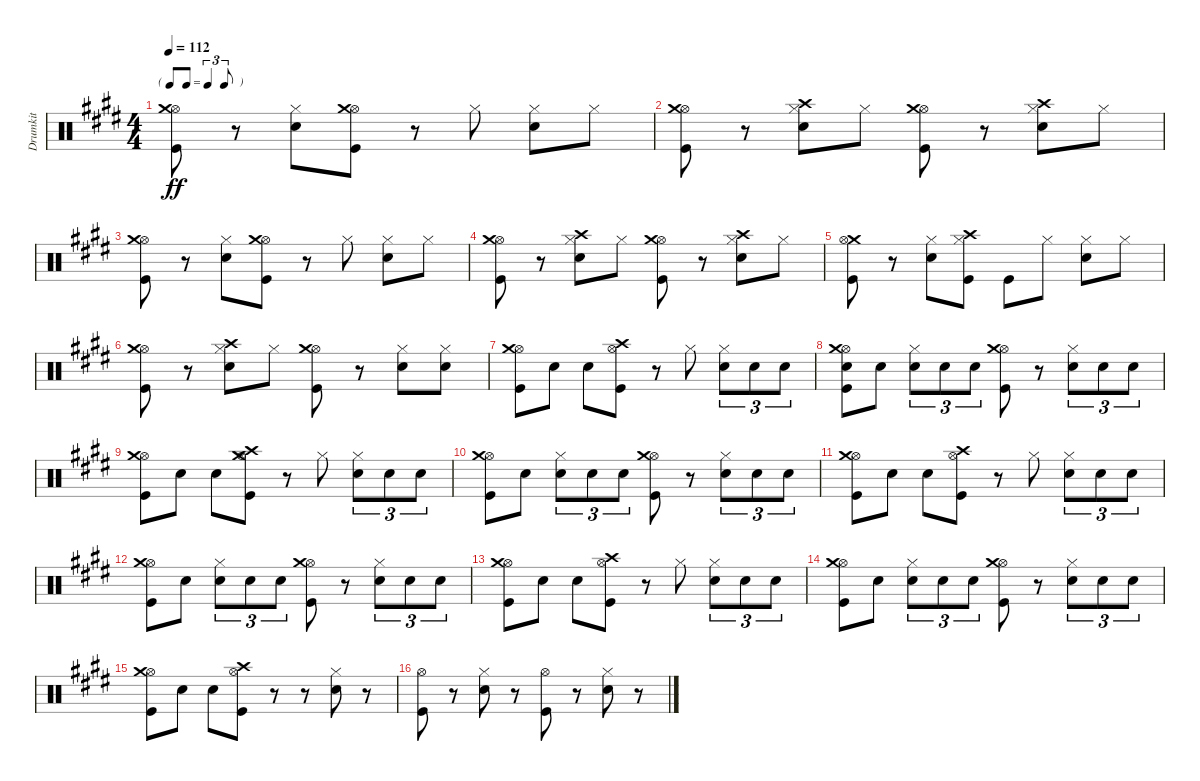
\track ("Drumkit" "Drumkit") {instrument percussion}
\staff {score}
\articulation defaults
\ts (4 4)
\tf triplet8th
\tempo 112
\clef neutral
\ks e
("Hi-Hat (open)" "Kick (hit)" "Crash medium (hit)").8{dy ff} r.8 ("Snare (hit) 2" "Hi-Hat (closed)").8 ("Hi-Hat (open)" "Kick (hit)" "Crash medium (hit)").8 r.8 "Hi-Hat (closed)".8 ("Snare (hit) 2" "Hi-Hat (closed)").8 "Hi-Hat (closed)".8 |
("Hi-Hat (open)" "Kick (hit)" "Crash medium (hit)").8 r.8 ("Snare (hit) 2" "Hi-Hat (closed)" "Crash high (hit)").8 "Hi-Hat (closed)".8 ("Kick (hit)" "Hi-Hat (open)" "Crash medium (hit)").8 r.8 ("Snare (hit) 2" "Hi-Hat (closed)" "Crash high (hit)").8 "Hi-Hat (closed)".8 |
("Hi-Hat (open)" "Kick (hit)" "Crash medium (hit)").8 r.8 ("Snare (hit) 2" "Hi-Hat (closed)").8 ("Hi-Hat (open)" "Kick (hit)" "Crash medium (hit)").8 r.8 "Hi-Hat (closed)".8 ("Snare (hit) 2" "Hi-Hat (closed)").8 "Hi-Hat (closed)".8 |
("Hi-Hat (open)" "Kick (hit)" "Crash medium (hit)").8 r.8 ("Snare (hit) 2" "Hi-Hat (closed)" "Crash high (hit)").8 "Hi-Hat (closed)".8 ("Kick (hit)" "Hi-Hat (open)" "Crash medium (hit)").8 r.8 ("Snare (hit) 2" "Hi-Hat (closed)" "Crash high (hit)").8 "Hi-Hat (closed)".8 |
("Kick (hit)" "Crash medium (hit)" "Hi-Hat (open)").8 r.8 ("Snare (hit) 2" "Hi-Hat (closed)").8 ("Hi-Hat (closed)" "Kick (hit)" "Crash high (hit)").8 "Kick (hit)".8 "Hi-Hat (closed)".8 ("Snare (hit) 2" "Hi-Hat (closed)").8 "Hi-Hat (closed)".8 |
\section ("" "")
("Hi-Hat (open)" "Kick (hit)" "Crash medium (hit)").8 r.8 ("Snare (hit) 2" "Hi-Hat (closed)" "Crash high (hit)").8 "Hi-Hat (closed)".8 ("Kick (hit)" "Hi-Hat (open)" "Crash medium (hit)").8 r.8 ("Snare (hit) 2" "Hi-Hat (closed)").8 ("Hi-Hat (closed)" "Snare (hit) 2").8 |
("Hi-Hat (open)" "Kick (hit)" "Crash medium (hit)").8 "Snare (hit) 2".8 "Snare (hit) 2".8 ("Kick (hit)" "Hi-Hat (open)" "Crash high (hit)").8 r.8 "Hi-Hat (closed)".8 ("Snare (hit) 2" "Hi-Hat (closed)").8{tu (3 2)} "Snare (hit) 2".8{tu (3 2)} "Snare (hit) 2".8{tu (3 2)} |
("Hi-Hat (open)" "Snare (hit) 2" "Kick (hit)" "Crash medium (hit)").8 "Snare (hit) 2".8 ("Snare (hit) 2" "Hi-Hat (closed)").8{tu (3 2)} "Snare (hit) 2".8{tu (3 2)} "Snare (hit) 2".8{tu (3 2)} ("Hi-Hat (open)" "Kick (hit)" "Crash medium (hit)").8 r.8 ("Snare (hit) 2" "Hi-Hat (closed)").8{tu (3 2)} "Snare (hit) 2".8{tu (3 2)} "Snare (hit) 2".8{tu (3 2)} |
("Hi-Hat (open)" "Kick (hit)" "Crash medium (hit)").8 "Snare (hit) 2".8 "Snare (hit) 2".8 ("Kick (hit)" "Hi-Hat (open)" "Crash high (hit)" "Crash medium (hit)").8 r.8 "Hi-Hat (closed)".8 ("Snare (hit) 2" "Hi-Hat (closed)").8{tu (3 2)} "Snare (hit) 2".8{tu (3 2)} "Snare (hit) 2".8{tu (3 2)} |
("Hi-Hat (open)" "Kick (hit)" "Crash medium (hit)").8 "Snare (hit) 2".8 ("Snare (hit) 2" "Hi-Hat (closed)").8{tu (3 2)} "Snare (hit) 2".8{tu (3 2)} "Snare (hit) 2".8{tu (3 2)} ("Hi-Hat (open)" "Kick (hit)" "Crash medium (hit)").8 r.8 ("Snare (hit) 2" "Hi-Hat (closed)").8{tu (3 2)} "Snare (hit) 2".8{tu (3 2)} "Snare (hit) 2".8{tu (3 2)} |
("Hi-Hat (open)" "Kick (hit)" "Crash medium (hit)").8 "Snare (hit) 2".8 "Snare (hit) 2".8 ("Kick (hit)" "Hi-Hat (open)" "Crash high (hit)").8 r.8 "Hi-Hat (closed)".8 ("Snare (hit) 2" "Hi-Hat (closed)").8{tu (3 2)} "Snare (hit) 2".8{tu (3 2)} "Snare (hit) 2".8{tu (3 2)} |
("Hi-Hat (open)" "Kick (hit)" "Crash medium (hit)").8 "Snare (hit) 2".8 ("Snare (hit) 2" "Hi-Hat (closed)").8{tu (3 2)} "Snare (hit) 2".8{tu (3 2)} "Snare (hit) 2".8{tu (3 2)} ("Hi-Hat (open)" "Kick (hit)" "Crash medium (hit)").8 r.8 ("Snare (hit) 2" "Hi-Hat (closed)").8{tu (3 2)} "Snare (hit) 2".8{tu (3 2)} "Snare (hit) 2".8{tu (3 2)} |
("Hi-Hat (open)" "Kick (hit)" "Crash medium (hit)").8 "Snare (hit) 2".8 "Snare (hit) 2".8 ("Kick (hit)" "Hi-Hat (open)" "Crash high (hit)").8 r.8 "Hi-Hat (closed)".8 ("Snare (hit) 2" "Hi-Hat (closed)").8{tu (3 2)} "Snare (hit) 2".8{tu (3 2)} "Snare (hit) 2".8{tu (3 2)} |
("Hi-Hat (open)" "Kick (hit)" "Crash medium (hit)").8 "Snare (hit) 2".8 ("Snare (hit) 2" "Hi-Hat (closed)").8{tu (3 2)} "Snare (hit) 2".8{tu (3 2)} "Snare (hit) 2".8{tu (3 2)} ("Hi-Hat (open)" "Kick (hit)" "Crash medium (hit)").8 r.8 ("Snare (hit) 2" "Hi-Hat (closed)").8{tu (3 2)} "Snare (hit) 2".8{tu (3 2)} "Snare (hit) 2".8{tu (3 2)} |
("Hi-Hat (open)" "Kick (hit)" "Crash medium (hit)").8 "Snare (hit) 2".8 "Snare (hit) 2".8 ("Kick (hit)" "Hi-Hat (open)" "Crash high (hit)").8 r.8 r.8 ("Snare (hit) 2" "Hi-Hat (closed)").8 r.8 |
\section ("" "")
("Hi-Hat (open)" "Kick (hit)").8 r.8 ("Snare (hit) 2" "Hi-Hat (closed)").8 r.8 ("Hi-Hat (open)" "Kick (hit)").8 r.8 ("Snare (hit) 2" "Hi-Hat (closed)").8 r.8
